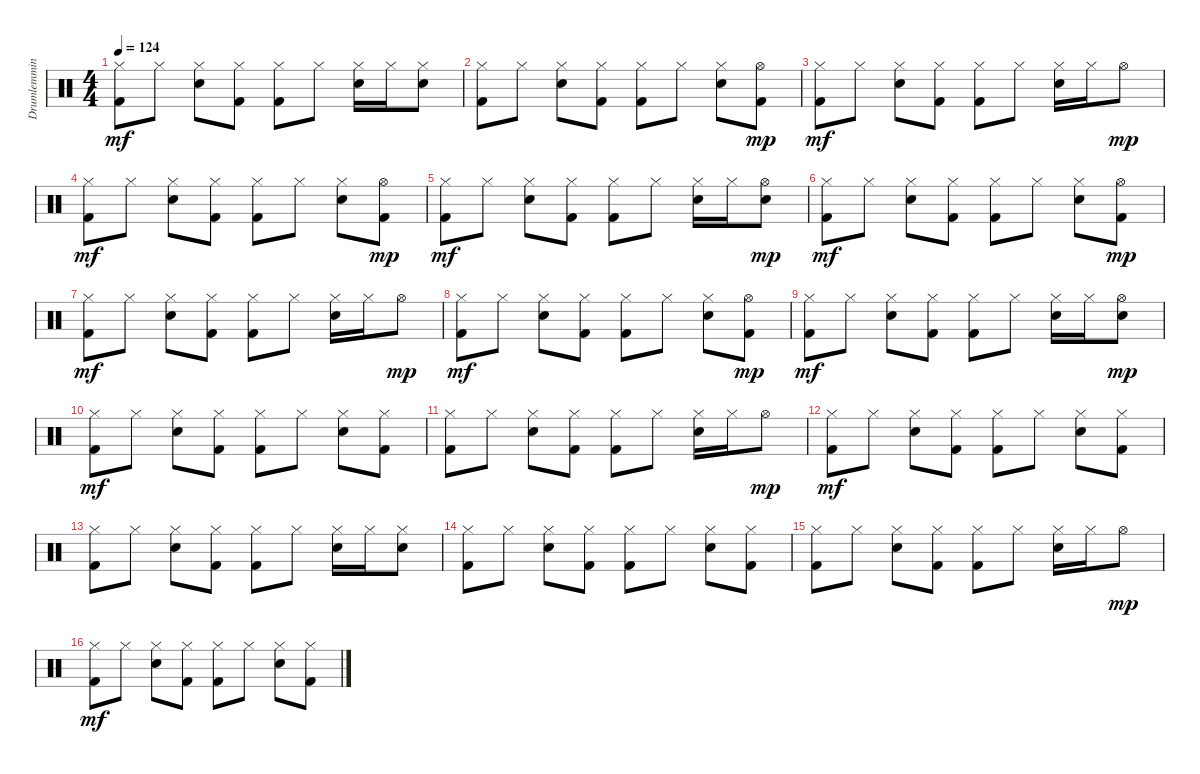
\track ("Drumlemming" "Drumlemmin") {instrument percussion}
\staff {score}
\articulation defaults
\ts (4 4)
\tempo 124
\clef neutral
\ks c
("Hi-Hat (closed)" "Kick (hit) 2").8{dy mf} "Hi-Hat (closed)".8 ("Snare (hit) 2" "Hi-Hat (closed)").8 ("Hi-Hat (closed)" "Kick (hit) 2").8 ("Hi-Hat (closed)" "Kick (hit) 2").8 "Hi-Hat (closed)".8 ("Snare (hit) 2" "Hi-Hat (closed)").16 "Hi-Hat (closed)".16 ("Snare (hit) 2" "Hi-Hat (closed)").8 |
("Hi-Hat (closed)" "Kick (hit) 2").8 "Hi-Hat (closed)".8 ("Snare (hit) 2" "Hi-Hat (closed)").8 ("Hi-Hat (closed)" "Kick (hit) 2").8 ("Hi-Hat (closed)" "Kick (hit) 2").8 "Hi-Hat (closed)".8 ("Snare (hit) 2" "Hi-Hat (closed)").8 ("Hi-Hat (open)" "Kick (hit) 2").8{dy mp} |
("Hi-Hat (closed)" "Kick (hit) 2").8{dy mf} "Hi-Hat (closed)".8 ("Snare (hit) 2" "Hi-Hat (closed)").8 ("Hi-Hat (closed)" "Kick (hit) 2").8 ("Hi-Hat (closed)" "Kick (hit) 2").8 "Hi-Hat (closed)".8 ("Snare (hit) 2" "Hi-Hat (closed)").16 "Hi-Hat (closed)".16 "Hi-Hat (open)".8{dy mp} |
("Hi-Hat (closed)" "Kick (hit) 2").8{dy mf} "Hi-Hat (closed)".8 ("Snare (hit) 2" "Hi-Hat (closed)").8 ("Hi-Hat (closed)" "Kick (hit) 2").8 ("Hi-Hat (closed)" "Kick (hit) 2").8 "Hi-Hat (closed)".8 ("Snare (hit) 2" "Hi-Hat (closed)").8 ("Hi-Hat (open)" "Kick (hit) 2").8{dy mp} |
("Hi-Hat (closed)" "Kick (hit) 2").8{dy mf} "Hi-Hat (closed)".8 ("Snare (hit) 2" "Hi-Hat (closed)").8 ("Hi-Hat (closed)" "Kick (hit) 2").8 ("Hi-Hat (closed)" "Kick (hit) 2").8 "Hi-Hat (closed)".8 ("Snare (hit) 2" "Hi-Hat (closed)").16 "Hi-Hat (closed)".16 ("Snare (hit) 2" "Hi-Hat (open)").8{dy mp} |
("Hi-Hat (closed)" "Kick (hit) 2").8{dy mf} "Hi-Hat (closed)".8 ("Snare (hit) 2" "Hi-Hat (closed)").8 ("Hi-Hat (closed)" "Kick (hit) 2").8 ("Hi-Hat (closed)" "Kick (hit) 2").8 "Hi-Hat (closed)".8 ("Snare (hit) 2" "Hi-Hat (closed)").8 ("Hi-Hat (open)" "Kick (hit) 2").8{dy mp} |
("Hi-Hat (closed)" "Kick (hit) 2").8{dy mf} "Hi-Hat (closed)".8 ("Snare (hit) 2" "Hi-Hat (closed)").8 ("Hi-Hat (closed)" "Kick (hit) 2").8 ("Hi-Hat (closed)" "Kick (hit) 2").8 "Hi-Hat (closed)".8 ("Snare (hit) 2" "Hi-Hat (closed)").16 "Hi-Hat (closed)".16 "Hi-Hat (open)".8{dy mp} |
("Hi-Hat (closed)" "Kick (hit) 2").8{dy mf} "Hi-Hat (closed)".8 ("Snare (hit) 2" "Hi-Hat (closed)").8 ("Hi-Hat (closed)" "Kick (hit) 2").8 ("Hi-Hat (closed)" "Kick (hit) 2").8 "Hi-Hat (closed)".8 ("Snare (hit) 2" "Hi-Hat (closed)").8 ("Hi-Hat (open)" "Kick (hit) 2").8{dy mp} |
("Hi-Hat (closed)" "Kick (hit) 2").8{dy mf} "Hi-Hat (closed)".8 ("Snare (hit) 2" "Hi-Hat (closed)").8 ("Hi-Hat (closed)" "Kick (hit) 2").8 ("Hi-Hat (closed)" "Kick (hit) 2").8 "Hi-Hat (closed)".8 ("Snare (hit) 2" "Hi-Hat (closed)").16 "Hi-Hat (closed)".16 ("Snare (hit) 2" "Hi-Hat (open)").8{dy mp} |
("Hi-Hat (closed)" "Kick (hit) 2").8{dy mf} "Hi-Hat (closed)".8 ("Snare (hit) 2" "Hi-Hat (closed)").8 ("Hi-Hat (closed)" "Kick (hit) 2").8 ("Hi-Hat (closed)" "Kick (hit) 2").8 "Hi-Hat (closed)".8 ("Snare (hit) 2" "Hi-Hat (closed)").8 ("Hi-Hat (closed)" "Kick (hit) 2").8 |
("Hi-Hat (closed)" "Kick (hit) 2").8 "Hi-Hat (closed)".8 ("Snare (hit) 2" "Hi-Hat (closed)").8 ("Hi-Hat (closed)" "Kick (hit) 2").8 ("Hi-Hat (closed)" "Kick (hit) 2").8 "Hi-Hat (closed)".8 ("Snare (hit) 2" "Hi-Hat (closed)").16 "Hi-Hat (closed)".16 "Hi-Hat (open)".8{dy mp} |
("Hi-Hat (closed)" "Kick (hit) 2").8{dy mf} "Hi-Hat (closed)".8 ("Snare (hit) 2" "Hi-Hat (closed)").8 ("Hi-Hat (closed)" "Kick (hit) 2").8 ("Hi-Hat (closed)" "Kick (hit) 2").8 "Hi-Hat (closed)".8 ("Snare (hit) 2" "Hi-Hat (closed)").8 ("Hi-Hat (closed)" "Kick (hit) 2").8 |
("Hi-Hat (closed)" "Kick (hit) 2").8 "Hi-Hat (closed)".8 ("Snare (hit) 2" "Hi-Hat (closed)").8 ("Hi-Hat (closed)" "Kick (hit) 2").8 ("Hi-Hat (closed)" "Kick (hit) 2").8 "Hi-Hat (closed)".8 ("Snare (hit) 2" "Hi-Hat (closed)").16 "Hi-Hat (closed)".16 ("Snare (hit) 2" "Hi-Hat (closed)").8 |
("Hi-Hat (closed)" "Kick (hit) 2").8 "Hi-Hat (closed)".8 ("Snare (hit) 2" "Hi-Hat (closed)").8 ("Hi-Hat (closed)" "Kick (hit) 2").8 ("Hi-Hat (closed)" "Kick (hit) 2").8 "Hi-Hat (closed)".8 ("Snare (hit) 2" "Hi-Hat (closed)").8 ("Hi-Hat (closed)" "Kick (hit) 2").8 |
("Hi-Hat (closed)" "Kick (hit) 2").8 "Hi-Hat (closed)".8 ("Snare (hit) 2" "Hi-Hat (closed)").8 ("Hi-Hat (closed)" "Kick (hit) 2").8 ("Hi-Hat (closed)" "Kick (hit) 2").8 "Hi-Hat (closed)".8 ("Snare (hit) 2" "Hi-Hat (closed)").16 "Hi-Hat (closed)".16 "Hi-Hat (open)".8{dy mp} |
("Hi-Hat (closed)" "Kick (hit) 2").8{dy mf} "Hi-Hat (closed)".8 ("Snare (hit) 2" "Hi-Hat (closed)").8 ("Hi-Hat (closed)" "Kick (hit) 2").8 ("Hi-Hat (closed)" "Kick (hit) 2").8 "Hi-Hat (closed)".8 ("Snare (hit) 2" "Hi-Hat (closed)").8 ("Hi-Hat (closed)" "Kick (hit) 2").8
